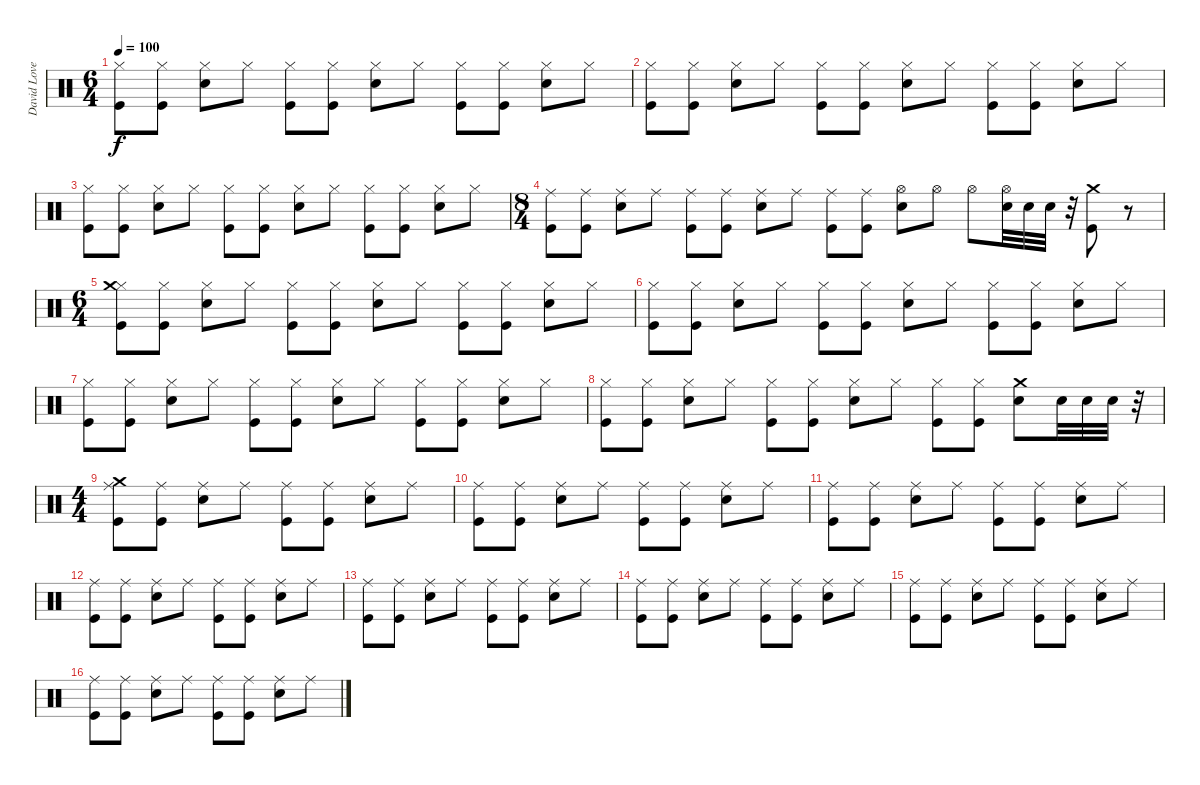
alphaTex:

\track ("David Lovering" "David Love") {instrument percussion}
\staff {score}
\articulation defaults
\ts (6 4)
\tempo 100
\clef neutral
\ks c
("Hi-Hat (closed)" "Kick (hit)").8{dy f} ("Hi-Hat (closed)" "Kick (hit)").8 ("Hi-Hat (closed)" "Snare (hit) 2").8 "Hi-Hat (closed)".8 ("Hi-Hat (closed)" "Kick (hit)").8 ("Hi-Hat (closed)" "Kick (hit)").8 ("Hi-Hat (closed)" "Snare (hit) 2").8 "Hi-Hat (closed)".8 ("Hi-Hat (closed)" "Kick (hit)").8 ("Hi-Hat (closed)" "Kick (hit)").8 ("Hi-Hat (closed)" "Snare (hit) 2").8 "Hi-Hat (closed)".8 |
("Hi-Hat (closed)" "Kick (hit)").8 ("Hi-Hat (closed)" "Kick (hit)").8 ("Hi-Hat (closed)" "Snare (hit) 2").8 "Hi-Hat (closed)".8 ("Hi-Hat (closed)" "Kick (hit)").8 ("Hi-Hat (closed)" "Kick (hit)").8 ("Hi-Hat (closed)" "Snare (hit) 2").8 "Hi-Hat (closed)".8 ("Hi-Hat (closed)" "Kick (hit)").8 ("Hi-Hat (closed)" "Kick (hit)").8 ("Hi-Hat (closed)" "Snare (hit) 2").8 "Hi-Hat (closed)".8 |
("Hi-Hat (closed)" "Kick (hit)").8 ("Hi-Hat (closed)" "Kick (hit)").8 ("Hi-Hat (closed)" "Snare (hit) 2").8 "Hi-Hat (closed)".8 ("Hi-Hat (closed)" "Kick (hit)").8 ("Hi-Hat (closed)" "Kick (hit)").8 ("Hi-Hat (closed)" "Snare (hit) 2").8 "Hi-Hat (closed)".8 ("Hi-Hat (closed)" "Kick (hit)").8 ("Hi-Hat (closed)" "Kick (hit)").8 ("Hi-Hat (closed)" "Snare (hit) 2").8 "Hi-Hat (closed)".8 |
\ts (8 4)
\section ("" "")
("Ride (middle)" "Kick (hit)").8 ("Ride (middle)" "Kick (hit)").8 ("Ride (middle)" "Snare (hit) 2").8 "Ride (middle)".8 ("Ride (middle)" "Kick (hit)").8 ("Ride (middle)" "Kick (hit)").8 ("Ride (middle)" "Snare (hit) 2").8 "Ride (middle)".8 ("Ride (middle)" "Kick (hit)").8 ("Ride (middle)" "Kick (hit)").8 ("Hi-Hat (open)" "Snare (hit) 2").8 "Hi-Hat (open)".8 "Hi-Hat (open)".8 ("Hi-Hat (open)" "Snare (hit) 2").32 "Snare (hit) 2".32 "Snare (hit) 2".32 r.32 ("Crash medium (hit)" "Kick (hit)").8 r.8 |
\ts (6 4)
("Hi-Hat (closed)" "Crash medium (hit)" "Kick (hit)").8 ("Hi-Hat (closed)" "Kick (hit)").8 ("Hi-Hat (closed)" "Snare (hit) 2").8 "Hi-Hat (closed)".8 ("Hi-Hat (closed)" "Kick (hit)").8 ("Hi-Hat (closed)" "Kick (hit)").8 ("Hi-Hat (closed)" "Snare (hit) 2").8 "Hi-Hat (closed)".8 ("Hi-Hat (closed)" "Kick (hit)").8 ("Hi-Hat (closed)" "Kick (hit)").8 ("Hi-Hat (closed)" "Snare (hit) 2").8 "Hi-Hat (closed)".8 |
("Hi-Hat (closed)" "Kick (hit)").8 ("Hi-Hat (closed)" "Kick (hit)").8 ("Hi-Hat (closed)" "Snare (hit) 2").8 "Hi-Hat (closed)".8 ("Hi-Hat (closed)" "Kick (hit)").8 ("Hi-Hat (closed)" "Kick (hit)").8 ("Hi-Hat (closed)" "Snare (hit) 2").8 "Hi-Hat (closed)".8 ("Hi-Hat (closed)" "Kick (hit)").8 ("Hi-Hat (closed)" "Kick (hit)").8 ("Hi-Hat (closed)" "Snare (hit) 2").8 "Hi-Hat (closed)".8 |
("Hi-Hat (closed)" "Kick (hit)").8 ("Hi-Hat (closed)" "Kick (hit)").8 ("Hi-Hat (closed)" "Snare (hit) 2").8 "Hi-Hat (closed)".8 ("Hi-Hat (closed)" "Kick (hit)").8 ("Hi-Hat (closed)" "Kick (hit)").8 ("Hi-Hat (closed)" "Snare (hit) 2").8 "Hi-Hat (closed)".8 ("Hi-Hat (closed)" "Kick (hit)").8 ("Hi-Hat (closed)" "Kick (hit)").8 ("Hi-Hat (closed)" "Snare (hit) 2").8 "Hi-Hat (closed)".8 |
("Hi-Hat (closed)" "Kick (hit)").8 ("Hi-Hat (closed)" "Kick (hit)").8 ("Hi-Hat (closed)" "Snare (hit) 2").8 "Hi-Hat (closed)".8 ("Hi-Hat (closed)" "Kick (hit)").8 ("Hi-Hat (closed)" "Kick (hit)").8 ("Hi-Hat (closed)" "Snare (hit) 2").8 "Hi-Hat (closed)".8 ("Hi-Hat (closed)" "Kick (hit)").8 ("Hi-Hat (closed)" "Kick (hit)").8 ("Crash medium (hit)" "Snare (hit) 2").8 "Snare (hit) 2".32 "Snare (hit) 2".32 "Snare (hit) 2".32 r.32 |
\ts (4 4)
\section ("" "")
("Ride (middle)" "Crash medium (hit)" "Kick (hit)").8 ("Ride (middle)" "Kick (hit)").8 ("Ride (middle)" "Snare (hit) 2").8 "Ride (middle)".8 ("Ride (middle)" "Kick (hit)").8 ("Ride (middle)" "Kick (hit)").8 ("Ride (middle)" "Snare (hit) 2").8 "Ride (middle)".8 |
("Ride (middle)" "Kick (hit)").8 ("Ride (middle)" "Kick (hit)").8 ("Ride (middle)" "Snare (hit) 2").8 "Ride (middle)".8 ("Ride (middle)" "Kick (hit)").8 ("Ride (middle)" "Kick (hit)").8 ("Ride (middle)" "Snare (hit) 2").8 "Ride (middle)".8 |
("Ride (middle)" "Kick (hit)").8 ("Ride (middle)" "Kick (hit)").8 ("Ride (middle)" "Snare (hit) 2").8 "Ride (middle)".8 ("Ride (middle)" "Kick (hit)").8 ("Ride (middle)" "Kick (hit)").8 ("Ride (middle)" "Snare (hit) 2").8 "Ride (middle)".8 |
("Ride (middle)" "Kick (hit)").8 ("Ride (middle)" "Kick (hit)").8 ("Ride (middle)" "Snare (hit) 2").8 "Ride (middle)".8 ("Ride (middle)" "Kick (hit)").8 ("Ride (middle)" "Kick (hit)").8 ("Ride (middle)" "Snare (hit) 2").8 "Ride (middle)".8 |
("Ride (middle)" "Kick (hit)").8 ("Ride (middle)" "Kick (hit)").8 ("Ride (middle)" "Snare (hit) 2").8 "Ride (middle)".8 ("Ride (middle)" "Kick (hit)").8 ("Ride (middle)" "Kick (hit)").8 ("Ride (middle)" "Snare (hit) 2").8 "Ride (middle)".8 |
("Ride (middle)" "Kick (hit)").8 ("Ride (middle)" "Kick (hit)").8 ("Ride (middle)" "Snare (hit) 2").8 "Ride (middle)".8 ("Ride (middle)" "Kick (hit)").8 ("Ride (middle)" "Kick (hit)").8 ("Ride (middle)" "Snare (hit) 2").8 "Ride (middle)".8 |
("Ride (middle)" "Kick (hit)").8 ("Ride (middle)" "Kick (hit)").8 ("Ride (middle)" "Snare (hit) 2").8 "Ride (middle)".8 ("Ride (middle)" "Kick (hit)").8 ("Ride (middle)" "Kick (hit)").8 ("Ride (middle)" "Snare (hit) 2").8 "Ride (middle)".8 |
("Ride (middle)" "Kick (hit)").8 ("Ride (middle)" "Kick (hit)").8 ("Ride (middle)" "Snare (hit) 2").8 "Ride (middle)".8 ("Ride (middle)" "Kick (hit)").8 ("Ride (middle)" "Kick (hit)").8 ("Ride (middle)" "Snare (hit) 2").8 "Ride (middle)".8
